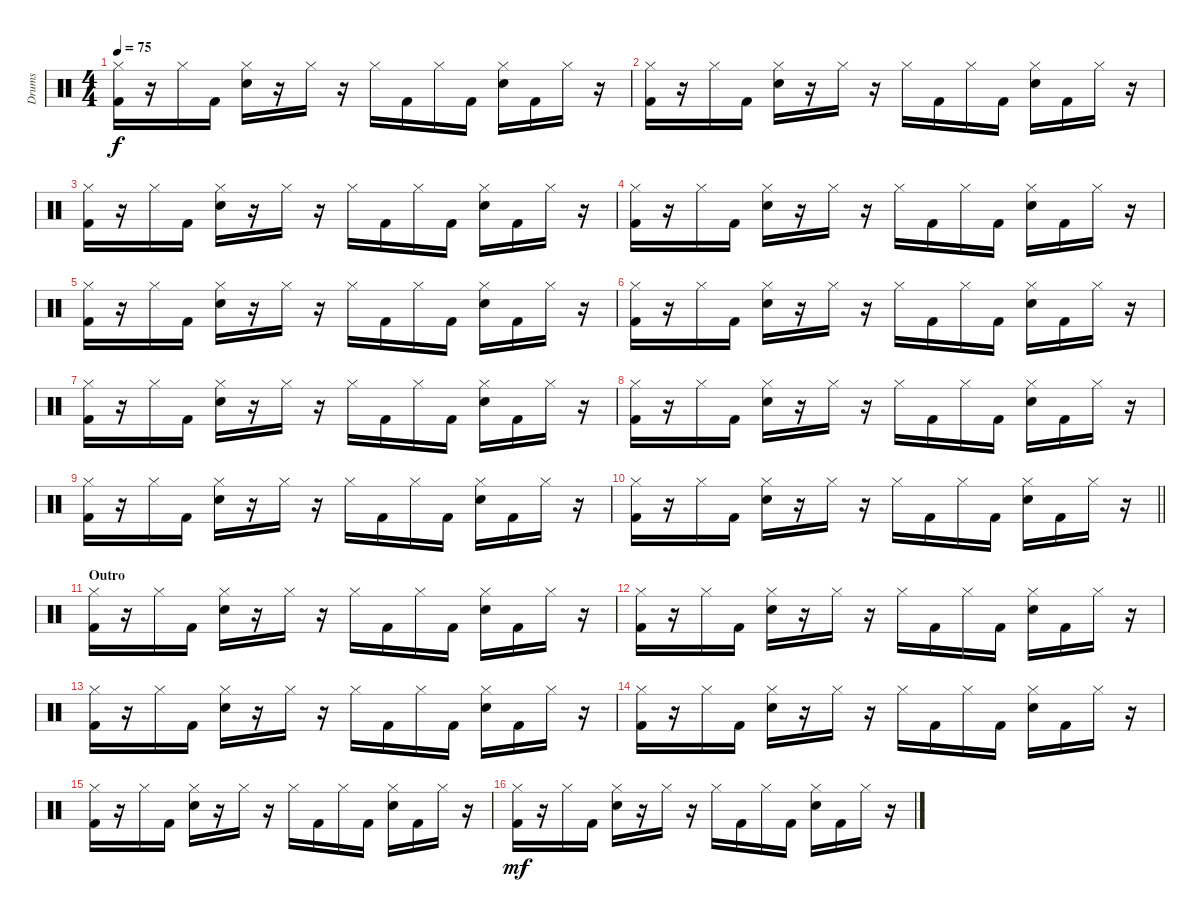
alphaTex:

\track ("Drums" "Drums") {instrument percussion}
\staff {score}
\articulation defaults
\ts (4 4)
\tempo 75
\clef neutral
\ks c
("Hi-Hat (closed)" "Kick (hit) 2").16{dy f} r.16 "Hi-Hat (closed)".16 "Kick (hit) 2".16 ("Hi-Hat (closed)" "Electric Snare (hit)").16 r.16 "Hi-Hat (closed)".16 r.16 "Hi-Hat (closed)".16 "Kick (hit) 2".16 "Hi-Hat (closed)".16 "Kick (hit) 2".16 ("Hi-Hat (closed)" "Electric Snare (hit)").16 "Kick (hit) 2".16 "Hi-Hat (closed)".16 r.16 |
("Hi-Hat (closed)" "Kick (hit) 2").16 r.16 "Hi-Hat (closed)".16 "Kick (hit) 2".16 ("Hi-Hat (closed)" "Electric Snare (hit)").16 r.16 "Hi-Hat (closed)".16 r.16 "Hi-Hat (closed)".16 "Kick (hit) 2".16 "Hi-Hat (closed)".16 "Kick (hit) 2".16 ("Hi-Hat (closed)" "Electric Snare (hit)").16 "Kick (hit) 2".16 "Hi-Hat (closed)".16 r.16 |
("Hi-Hat (closed)" "Kick (hit) 2").16 r.16 "Hi-Hat (closed)".16 "Kick (hit) 2".16 ("Hi-Hat (closed)" "Electric Snare (hit)").16 r.16 "Hi-Hat (closed)".16 r.16 "Hi-Hat (closed)".16 "Kick (hit) 2".16 "Hi-Hat (closed)".16 "Kick (hit) 2".16 ("Hi-Hat (closed)" "Electric Snare (hit)").16 "Kick (hit) 2".16 "Hi-Hat (closed)".16 r.16 |
("Hi-Hat (closed)" "Kick (hit) 2").16 r.16 "Hi-Hat (closed)".16 "Kick (hit) 2".16 ("Hi-Hat (closed)" "Electric Snare (hit)").16 r.16 "Hi-Hat (closed)".16 r.16 "Hi-Hat (closed)".16 "Kick (hit) 2".16 "Hi-Hat (closed)".16 "Kick (hit) 2".16 ("Hi-Hat (closed)" "Electric Snare (hit)").16 "Kick (hit) 2".16 "Hi-Hat (closed)".16 r.16 |
("Hi-Hat (closed)" "Kick (hit) 2").16 r.16 "Hi-Hat (closed)".16 "Kick (hit) 2".16 ("Hi-Hat (closed)" "Electric Snare (hit)").16 r.16 "Hi-Hat (closed)".16 r.16 "Hi-Hat (closed)".16 "Kick (hit) 2".16 "Hi-Hat (closed)".16 "Kick (hit) 2".16 ("Hi-Hat (closed)" "Electric Snare (hit)").16 "Kick (hit) 2".16 "Hi-Hat (closed)".16 r.16 |
("Hi-Hat (closed)" "Kick (hit) 2").16 r.16 "Hi-Hat (closed)".16 "Kick (hit) 2".16 ("Hi-Hat (closed)" "Electric Snare (hit)").16 r.16 "Hi-Hat (closed)".16 r.16 "Hi-Hat (closed)".16 "Kick (hit) 2".16 "Hi-Hat (closed)".16 "Kick (hit) 2".16 ("Hi-Hat (closed)" "Electric Snare (hit)").16 "Kick (hit) 2".16 "Hi-Hat (closed)".16 r.16 |
("Hi-Hat (closed)" "Kick (hit) 2").16 r.16 "Hi-Hat (closed)".16 "Kick (hit) 2".16 ("Hi-Hat (closed)" "Electric Snare (hit)").16 r.16 "Hi-Hat (closed)".16 r.16 "Hi-Hat (closed)".16 "Kick (hit) 2".16 "Hi-Hat (closed)".16 "Kick (hit) 2".16 ("Hi-Hat (closed)" "Electric Snare (hit)").16 "Kick (hit) 2".16 "Hi-Hat (closed)".16 r.16 |
("Hi-Hat (closed)" "Kick (hit) 2").16 r.16 "Hi-Hat (closed)".16 "Kick (hit) 2".16 ("Hi-Hat (closed)" "Electric Snare (hit)").16 r.16 "Hi-Hat (closed)".16 r.16 "Hi-Hat (closed)".16 "Kick (hit) 2".16 "Hi-Hat (closed)".16 "Kick (hit) 2".16 ("Hi-Hat (closed)" "Electric Snare (hit)").16 "Kick (hit) 2".16 "Hi-Hat (closed)".16 r.16 |
("Hi-Hat (closed)" "Kick (hit) 2").16 r.16 "Hi-Hat (closed)".16 "Kick (hit) 2".16 ("Hi-Hat (closed)" "Electric Snare (hit)").16 r.16 "Hi-Hat (closed)".16 r.16 "Hi-Hat (closed)".16 "Kick (hit) 2".16 "Hi-Hat (closed)".16 "Kick (hit) 2".16 ("Hi-Hat (closed)" "Electric Snare (hit)").16 "Kick (hit) 2".16 "Hi-Hat (closed)".16 r.16 |
\barLineRight lightlight
("Hi-Hat (closed)" "Kick (hit) 2").16 r.16 "Hi-Hat (closed)".16 "Kick (hit) 2".16 ("Hi-Hat (closed)" "Electric Snare (hit)").16 r.16 "Hi-Hat (closed)".16 r.16 "Hi-Hat (closed)".16 "Kick (hit) 2".16 "Hi-Hat (closed)".16 "Kick (hit) 2".16 ("Hi-Hat (closed)" "Electric Snare (hit)").16 "Kick (hit) 2".16 "Hi-Hat (closed)".16 r.16 |
\section ("" "Outro")
("Hi-Hat (closed)" "Kick (hit) 2").16 r.16 "Hi-Hat (closed)".16 "Kick (hit) 2".16 ("Hi-Hat (closed)" "Electric Snare (hit)").16 r.16 "Hi-Hat (closed)".16 r.16 "Hi-Hat (closed)".16 "Kick (hit) 2".16 "Hi-Hat (closed)".16 "Kick (hit) 2".16 ("Hi-Hat (closed)" "Electric Snare (hit)").16 "Kick (hit) 2".16 "Hi-Hat (closed)".16 r.16 |
("Hi-Hat (closed)" "Kick (hit) 2").16 r.16 "Hi-Hat (closed)".16 "Kick (hit) 2".16 ("Hi-Hat (closed)" "Electric Snare (hit)").16 r.16 "Hi-Hat (closed)".16 r.16 "Hi-Hat (closed)".16 "Kick (hit) 2".16 "Hi-Hat (closed)".16 "Kick (hit) 2".16 ("Hi-Hat (closed)" "Electric Snare (hit)").16 "Kick (hit) 2".16 "Hi-Hat (closed)".16 r.16 |
("Hi-Hat (closed)" "Kick (hit) 2").16 r.16 "Hi-Hat (closed)".16 "Kick (hit) 2".16 ("Hi-Hat (closed)" "Electric Snare (hit)").16 r.16 "Hi-Hat (closed)".16 r.16 "Hi-Hat (closed)".16 "Kick (hit) 2".16 "Hi-Hat (closed)".16 "Kick (hit) 2".16 ("Hi-Hat (closed)" "Electric Snare (hit)").16 "Kick (hit) 2".16 "Hi-Hat (closed)".16 r.16 |
("Hi-Hat (closed)" "Kick (hit) 2").16 r.16 "Hi-Hat (closed)".16 "Kick (hit) 2".16 ("Hi-Hat (closed)" "Electric Snare (hit)").16 r.16 "Hi-Hat (closed)".16 r.16 "Hi-Hat (closed)".16 "Kick (hit) 2".16 "Hi-Hat (closed)".16 "Kick (hit) 2".16 ("Hi-Hat (closed)" "Electric Snare (hit)").16 "Kick (hit) 2".16 "Hi-Hat (closed)".16 r.16 |
("Hi-Hat (closed)" "Kick (hit) 2").16 r.16 "Hi-Hat (closed)".16 "Kick (hit) 2".16 ("Hi-Hat (closed)" "Electric Snare (hit)").16 r.16 "Hi-Hat (closed)".16 r.16 "Hi-Hat (closed)".16 "Kick (hit) 2".16 "Hi-Hat (closed)".16 "Kick (hit) 2".16 ("Hi-Hat (closed)" "Electric Snare (hit)").16 "Kick (hit) 2".16 "Hi-Hat (closed)".16 r.16 |
("Hi-Hat (closed)" "Kick (hit) 2").16{dy mf} r.16 "Hi-Hat (closed)".16 "Kick (hit) 2".16 ("Hi-Hat (closed)" "Electric Snare (hit)").16 r.16 "Hi-Hat (closed)".16 r.16 "Hi-Hat (closed)".16 "Kick (hit) 2".16 "Hi-Hat (closed)".16 "Kick (hit) 2".16 ("Hi-Hat (closed)" "Electric Snare (hit)").16 "Kick (hit) 2".16 "Hi-Hat (closed)".16 r.16
